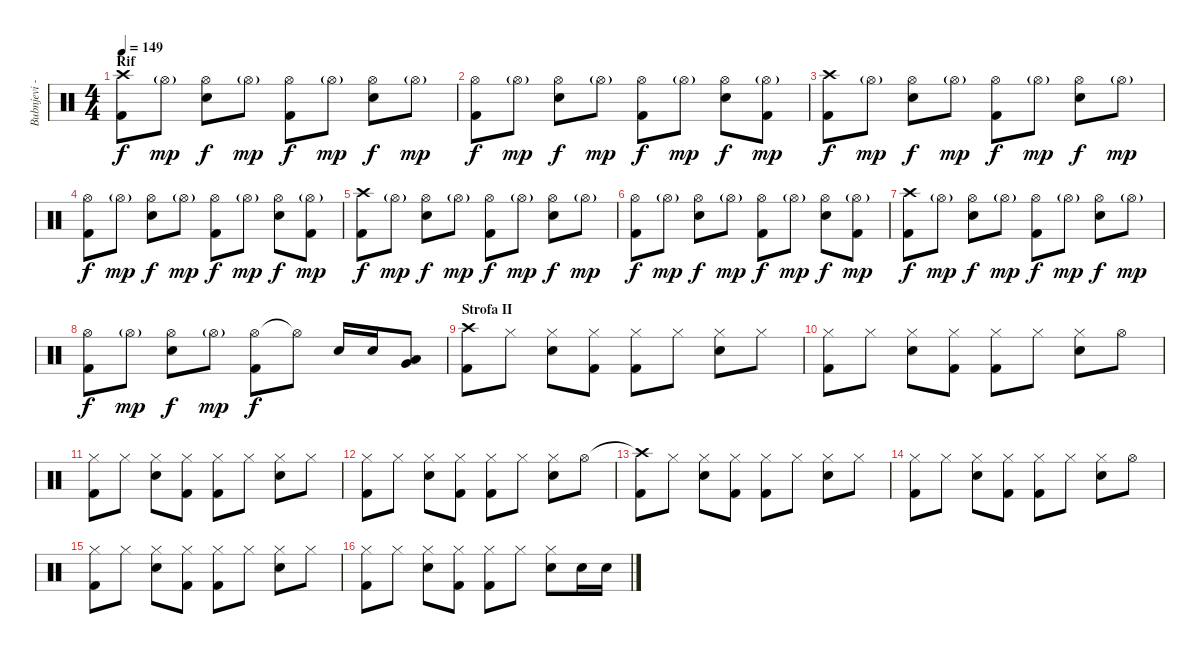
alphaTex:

\track ("Bubnjevi - Vladan Cvetkovic" "Bubnjevi -") {instrument percussion}
\staff {score}
\articulation defaults
\ts (4 4)
\section ("" "Rif")
\tempo 149
\clef neutral
\ks c
("Crash high (hit)" "Kick (hit) 2").8{dy f} "Hi-Hat (open)"{g}.8{dy mp} ("Hi-Hat (open)" "Electric Snare (hit)").8{dy f} "Hi-Hat (open)"{g}.8{dy mp} ("Hi-Hat (open)" "Kick (hit) 2").8{dy f} "Hi-Hat (open)"{g}.8{dy mp} ("Hi-Hat (open)" "Electric Snare (hit)").8{dy f} "Hi-Hat (open)"{g}.8{dy mp} |
("Hi-Hat (open)" "Kick (hit) 2").8{dy f} "Hi-Hat (open)"{g}.8{dy mp} ("Hi-Hat (open)" "Electric Snare (hit)").8{dy f} "Hi-Hat (open)"{g}.8{dy mp} ("Hi-Hat (open)" "Kick (hit) 2").8{dy f} "Hi-Hat (open)"{g}.8{dy mp} ("Hi-Hat (open)" "Electric Snare (hit)").8{dy f} ("Hi-Hat (open)"{g} "Kick (hit) 2").8{dy mp} |
("Crash high (hit)" "Kick (hit) 2").8{dy f} "Hi-Hat (open)"{g}.8{dy mp} ("Hi-Hat (open)" "Electric Snare (hit)").8{dy f} "Hi-Hat (open)"{g}.8{dy mp} ("Hi-Hat (open)" "Kick (hit) 2").8{dy f} "Hi-Hat (open)"{g}.8{dy mp} ("Hi-Hat (open)" "Electric Snare (hit)").8{dy f} "Hi-Hat (open)"{g}.8{dy mp} |
("Hi-Hat (open)" "Kick (hit) 2").8{dy f} "Hi-Hat (open)"{g}.8{dy mp} ("Hi-Hat (open)" "Electric Snare (hit)").8{dy f} "Hi-Hat (open)"{g}.8{dy mp} ("Hi-Hat (open)" "Kick (hit) 2").8{dy f} "Hi-Hat (open)"{g}.8{dy mp} ("Hi-Hat (open)" "Electric Snare (hit)").8{dy f} ("Hi-Hat (open)"{g} "Kick (hit) 2").8{dy mp} |
("Crash high (hit)" "Kick (hit) 2").8{dy f} "Hi-Hat (open)"{g}.8{dy mp} ("Hi-Hat (open)" "Electric Snare (hit)").8{dy f} "Hi-Hat (open)"{g}.8{dy mp} ("Hi-Hat (open)" "Kick (hit) 2").8{dy f} "Hi-Hat (open)"{g}.8{dy mp} ("Hi-Hat (open)" "Electric Snare (hit)").8{dy f} "Hi-Hat (open)"{g}.8{dy mp} |
("Hi-Hat (open)" "Kick (hit) 2").8{dy f} "Hi-Hat (open)"{g}.8{dy mp} ("Hi-Hat (open)" "Electric Snare (hit)").8{dy f} "Hi-Hat (open)"{g}.8{dy mp} ("Hi-Hat (open)" "Kick (hit) 2").8{dy f} "Hi-Hat (open)"{g}.8{dy mp} ("Hi-Hat (open)" "Electric Snare (hit)").8{dy f} ("Hi-Hat (open)"{g} "Kick (hit) 2").8{dy mp} |
("Crash high (hit)" "Kick (hit) 2").8{dy f} "Hi-Hat (open)"{g}.8{dy mp} ("Hi-Hat (open)" "Electric Snare (hit)").8{dy f} "Hi-Hat (open)"{g}.8{dy mp} ("Hi-Hat (open)" "Kick (hit) 2").8{dy f} "Hi-Hat (open)"{g}.8{dy mp} ("Hi-Hat (open)" "Electric Snare (hit)").8{dy f} "Hi-Hat (open)"{g}.8{dy mp} |
("Hi-Hat (open)" "Kick (hit) 2").8{dy f} "Hi-Hat (open)"{g}.8{dy mp} ("Hi-Hat (open)" "Electric Snare (hit)").8{dy f} "Hi-Hat (open)"{g}.8{dy mp} ("Hi-Hat (open)" "Kick (hit) 2").8{dy f} "Hi-Hat (open)"{t}.8 "Electric Snare (hit)".16 "Electric Snare (hit)".16 ("Low Tom (hit)" "Very Low Tom (hit)").8{bd 60} |
\section ("" "Strofa II")
("Crash high (hit)" "Kick (hit) 2").8 "Hi-Hat (closed)".8 ("Hi-Hat (closed)" "Electric Snare (hit)").8 ("Hi-Hat (closed)" "Kick (hit) 2").8 ("Hi-Hat (closed)" "Kick (hit) 2").8 "Hi-Hat (closed)".8 ("Hi-Hat (closed)" "Electric Snare (hit)").8 "Hi-Hat (closed)".8 |
("Hi-Hat (closed)" "Kick (hit) 2").8 "Hi-Hat (closed)".8 ("Hi-Hat (closed)" "Electric Snare (hit)").8 ("Hi-Hat (closed)" "Kick (hit) 2").8 ("Hi-Hat (closed)" "Kick (hit) 2").8 "Hi-Hat (closed)".8 ("Hi-Hat (closed)" "Electric Snare (hit)").8 "Hi-Hat (open)".8 |
("Hi-Hat (closed)" "Kick (hit) 2").8 "Hi-Hat (closed)".8 ("Hi-Hat (closed)" "Electric Snare (hit)").8 ("Hi-Hat (closed)" "Kick (hit) 2").8 ("Hi-Hat (closed)" "Kick (hit) 2").8 "Hi-Hat (closed)".8 ("Hi-Hat (closed)" "Electric Snare (hit)").8 "Hi-Hat (closed)".8 |
("Hi-Hat (closed)" "Kick (hit) 2").8 "Hi-Hat (closed)".8 ("Hi-Hat (closed)" "Electric Snare (hit)").8 ("Hi-Hat (closed)" "Kick (hit) 2").8 ("Hi-Hat (closed)" "Kick (hit) 2").8 "Hi-Hat (closed)".8 ("Hi-Hat (closed)" "Electric Snare (hit)").8 "Hi-Hat (open)".8 |
("Crash high (hit)"{t} "Kick (hit) 2").8 "Hi-Hat (closed)".8 ("Hi-Hat (closed)" "Electric Snare (hit)").8 ("Hi-Hat (closed)" "Kick (hit) 2").8 ("Hi-Hat (closed)" "Kick (hit) 2").8 "Hi-Hat (closed)".8 ("Hi-Hat (closed)" "Electric Snare (hit)").8 "Hi-Hat (closed)".8 |
("Hi-Hat (closed)" "Kick (hit) 2").8 "Hi-Hat (closed)".8 ("Hi-Hat (closed)" "Electric Snare (hit)").8 ("Hi-Hat (closed)" "Kick (hit) 2").8 ("Hi-Hat (closed)" "Kick (hit) 2").8 "Hi-Hat (closed)".8 ("Hi-Hat (closed)" "Electric Snare (hit)").8 "Hi-Hat (open)".8 |
("Hi-Hat (closed)" "Kick (hit) 2").8 "Hi-Hat (closed)".8 ("Hi-Hat (closed)" "Electric Snare (hit)").8 ("Hi-Hat (closed)" "Kick (hit) 2").8 ("Hi-Hat (closed)" "Kick (hit) 2").8 "Hi-Hat (closed)".8 ("Hi-Hat (closed)" "Electric Snare (hit)").8 "Hi-Hat (closed)".8 |
("Hi-Hat (closed)" "Kick (hit) 2").8 "Hi-Hat (closed)".8 ("Hi-Hat (closed)" "Electric Snare (hit)").8 ("Hi-Hat (closed)" "Kick (hit) 2").8 ("Hi-Hat (closed)" "Kick (hit) 2").8 "Hi-Hat (closed)".8 ("Hi-Hat (closed)" "Electric Snare (hit)").8 "Electric Snare (hit)".16 "Electric Snare (hit)".16
